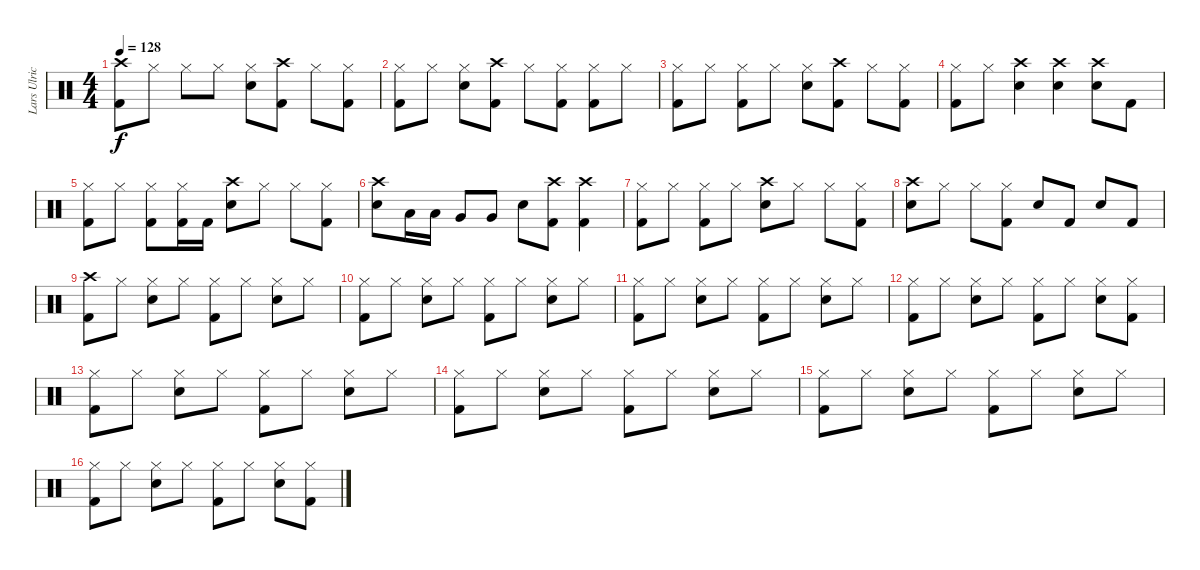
\track ("Lars Ulrich" "Lars Ulric") {instrument percussion}
\staff {score}
\articulation defaults
\ts (4 4)
\tempo 128
\clef neutral
\ks c
("Crash high (hit)" "Kick (hit) 2").8{dy f} "Hi-Hat (closed)".8 "Hi-Hat (closed)".8 "Hi-Hat (closed)".8 ("Hi-Hat (closed)" "Electric Snare (hit)").8 ("Crash high (hit)" "Kick (hit) 2").8 "Hi-Hat (closed)".8 ("Hi-Hat (closed)" "Kick (hit) 2").8 |
("Hi-Hat (closed)" "Kick (hit) 2").8 "Hi-Hat (closed)".8 ("Hi-Hat (closed)" "Electric Snare (hit)").8 ("Crash high (hit)" "Kick (hit) 2").8 "Hi-Hat (closed)".8 ("Hi-Hat (closed)" "Kick (hit) 2").8 ("Hi-Hat (closed)" "Kick (hit) 2").8 "Hi-Hat (closed)".8 |
("Hi-Hat (closed)" "Kick (hit) 2").8 "Hi-Hat (closed)".8 ("Hi-Hat (closed)" "Kick (hit) 2").8 "Hi-Hat (closed)".8 ("Hi-Hat (closed)" "Electric Snare (hit)").8 ("Crash high (hit)" "Kick (hit) 2").8 "Hi-Hat (closed)".8 ("Hi-Hat (closed)" "Kick (hit) 2").8 |
("Hi-Hat (closed)" "Kick (hit) 2").8 "Hi-Hat (closed)".8 ("Crash high (hit)" "Electric Snare (hit)").4 ("Crash high (hit)" "Electric Snare (hit)").4 ("Crash high (hit)" "Electric Snare (hit)").8 "Kick (hit) 2".8 |
("Hi-Hat (closed)" "Kick (hit) 2").8 "Hi-Hat (closed)".8 ("Hi-Hat (closed)" "Kick (hit) 2").8 ("Hi-Hat (closed)" "Kick (hit) 2").16 "Kick (hit) 2".16 ("Crash high (hit)" "Electric Snare (hit)").8 "Hi-Hat (closed)".8 "Hi-Hat (closed)".8 ("Hi-Hat (closed)" "Kick (hit) 2").8 |
("Crash high (hit)" "Electric Snare (hit)").8 "Low Floor Tom (hit)".16 "Low Floor Tom (hit)".16 "Very Low Tom (hit)".8 "Very Low Tom (hit)".8 "Electric Snare (hit)".8 ("Crash high (hit)" "Kick (hit) 2").8 ("Crash high (hit)" "Kick (hit) 2").4 |
("Hi-Hat (closed)" "Kick (hit) 2").8 "Hi-Hat (closed)".8 ("Hi-Hat (closed)" "Kick (hit) 2").8 "Hi-Hat (closed)".8 ("Crash high (hit)" "Electric Snare (hit)").8 "Hi-Hat (closed)".8 "Hi-Hat (closed)".8 ("Hi-Hat (closed)" "Kick (hit) 2").8 |
("Crash high (hit)" "Electric Snare (hit)").8 "Hi-Hat (closed)".8 "Hi-Hat (closed)".8 ("Hi-Hat (closed)" "Kick (hit) 2").8 "Electric Snare (hit)".8 "Kick (hit) 2".8 "Electric Snare (hit)".8 "Kick (hit) 2".8 |
("Crash high (hit)" "Kick (hit) 2").8 "Hi-Hat (closed)".8 ("Hi-Hat (closed)" "Electric Snare (hit)").8 "Hi-Hat (closed)".8 ("Hi-Hat (closed)" "Kick (hit) 2").8 "Hi-Hat (closed)".8 ("Hi-Hat (closed)" "Electric Snare (hit)").8 "Hi-Hat (closed)".8 |
("Hi-Hat (closed)" "Kick (hit) 2").8 "Hi-Hat (closed)".8 ("Hi-Hat (closed)" "Electric Snare (hit)").8 "Hi-Hat (closed)".8 ("Hi-Hat (closed)" "Kick (hit) 2").8 "Hi-Hat (closed)".8 ("Hi-Hat (closed)" "Electric Snare (hit)").8 "Hi-Hat (closed)".8 |
("Hi-Hat (closed)" "Kick (hit) 2").8 "Hi-Hat (closed)".8 ("Hi-Hat (closed)" "Electric Snare (hit)").8 "Hi-Hat (closed)".8 ("Hi-Hat (closed)" "Kick (hit) 2").8 "Hi-Hat (closed)".8 ("Hi-Hat (closed)" "Electric Snare (hit)").8 "Hi-Hat (closed)".8 |
("Hi-Hat (closed)" "Kick (hit) 2").8 "Hi-Hat (closed)".8 ("Hi-Hat (closed)" "Electric Snare (hit)").8 "Hi-Hat (closed)".8 ("Hi-Hat (closed)" "Kick (hit) 2").8 "Hi-Hat (closed)".8 ("Hi-Hat (closed)" "Electric Snare (hit)").8 ("Hi-Hat (closed)" "Kick (hit) 2").8 |
("Hi-Hat (closed)" "Kick (hit) 2").8 "Hi-Hat (closed)".8 ("Hi-Hat (closed)" "Electric Snare (hit)").8 "Hi-Hat (closed)".8 ("Hi-Hat (closed)" "Kick (hit) 2").8 "Hi-Hat (closed)".8 ("Hi-Hat (closed)" "Electric Snare (hit)").8 "Hi-Hat (closed)".8 |
("Hi-Hat (closed)" "Kick (hit) 2").8 "Hi-Hat (closed)".8 ("Hi-Hat (closed)" "Electric Snare (hit)").8 "Hi-Hat (closed)".8 ("Hi-Hat (closed)" "Kick (hit) 2").8 "Hi-Hat (closed)".8 ("Hi-Hat (closed)" "Electric Snare (hit)").8 "Hi-Hat (closed)".8 |
("Hi-Hat (closed)" "Kick (hit) 2").8 "Hi-Hat (closed)".8 ("Hi-Hat (closed)" "Electric Snare (hit)").8 "Hi-Hat (closed)".8 ("Hi-Hat (closed)" "Kick (hit) 2").8 "Hi-Hat (closed)".8 ("Hi-Hat (closed)" "Electric Snare (hit)").8 "Hi-Hat (closed)".8 |
("Hi-Hat (closed)" "Kick (hit) 2").8 "Hi-Hat (closed)".8 ("Hi-Hat (closed)" "Electric Snare (hit)").8 "Hi-Hat (closed)".8 ("Hi-Hat (closed)" "Kick (hit) 2").8 "Hi-Hat (closed)".8 ("Hi-Hat (closed)" "Electric Snare (hit)").8 ("Hi-Hat (closed)" "Kick (hit) 2").8
